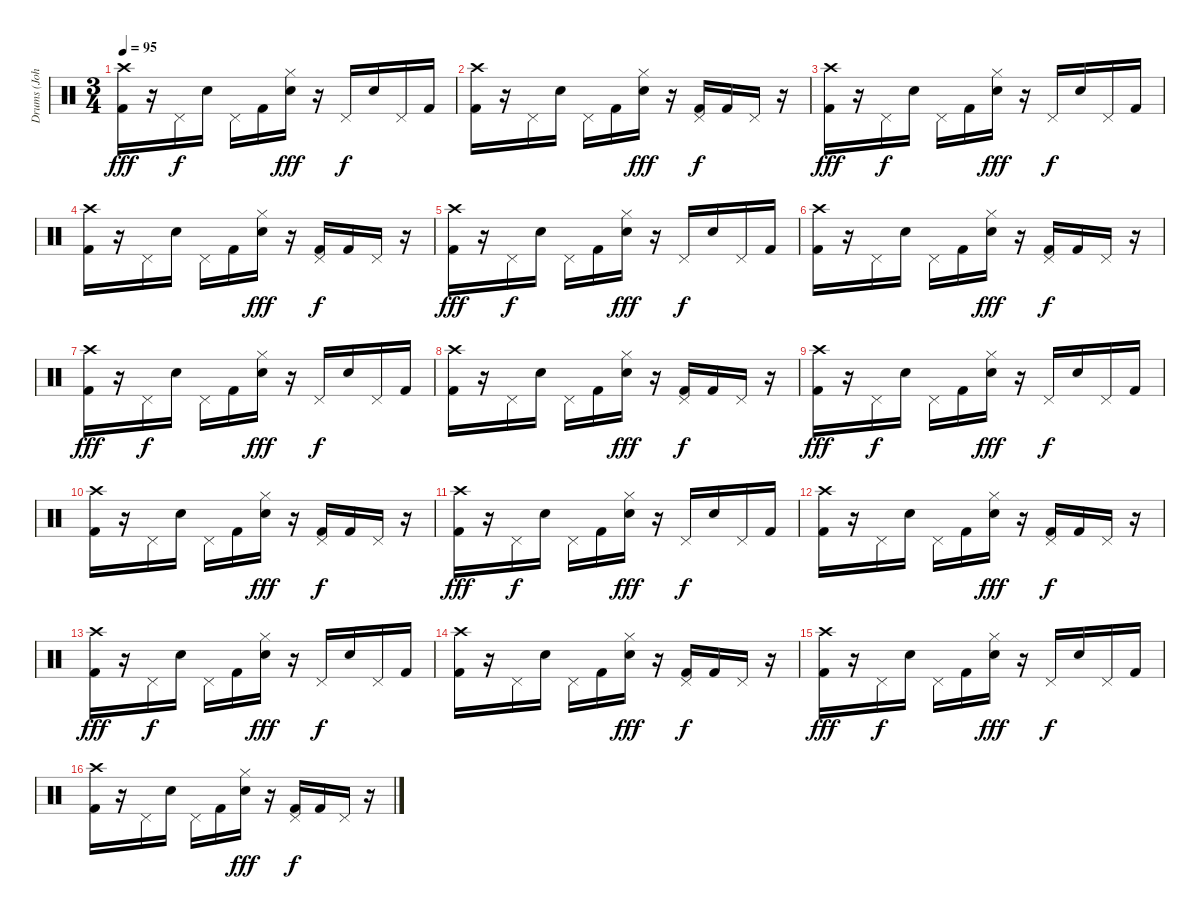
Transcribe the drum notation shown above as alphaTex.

\track ("Drums (John Otto)" "Drums (Joh") {instrument percussion}
\staff {score}
\articulation defaults
\ts (3 4)
\tempo 95
\clef neutral
\ks c
("Crash high (hit)" "Kick (hit) 2").16{dy fff} r.16 "Pedal Hi-Hat (hit)".16{dy f} "Electric Snare (hit)".16 "Pedal Hi-Hat (hit)".16 "Kick (hit) 2".16 ("Hi-Hat (closed)" "Electric Snare (hit)").16{dy fff} r.16 "Pedal Hi-Hat (hit)".16{dy f} "Electric Snare (hit)".16 "Pedal Hi-Hat (hit)".16 "Kick (hit) 2".16 |
("Crash high (hit)" "Kick (hit) 2").16 r.16 "Pedal Hi-Hat (hit)".16 "Electric Snare (hit)".16 "Pedal Hi-Hat (hit)".16 "Kick (hit) 2".16 ("Hi-Hat (closed)" "Electric Snare (hit)").16{dy fff} r.16 ("Pedal Hi-Hat (hit)" "Kick (hit) 2").16{dy f} "Kick (hit) 2".16 "Pedal Hi-Hat (hit)".16 r.16 |
("Crash high (hit)" "Kick (hit) 2").16{dy fff} r.16 "Pedal Hi-Hat (hit)".16{dy f} "Electric Snare (hit)".16 "Pedal Hi-Hat (hit)".16 "Kick (hit) 2".16 ("Hi-Hat (closed)" "Electric Snare (hit)").16{dy fff} r.16 "Pedal Hi-Hat (hit)".16{dy f} "Electric Snare (hit)".16 "Pedal Hi-Hat (hit)".16 "Kick (hit) 2".16 |
("Crash high (hit)" "Kick (hit) 2").16 r.16 "Pedal Hi-Hat (hit)".16 "Electric Snare (hit)".16 "Pedal Hi-Hat (hit)".16 "Kick (hit) 2".16 ("Hi-Hat (closed)" "Electric Snare (hit)").16{dy fff} r.16 ("Pedal Hi-Hat (hit)" "Kick (hit) 2").16{dy f} "Kick (hit) 2".16 "Pedal Hi-Hat (hit)".16 r.16 |
("Crash high (hit)" "Kick (hit) 2").16{dy fff} r.16 "Pedal Hi-Hat (hit)".16{dy f} "Electric Snare (hit)".16 "Pedal Hi-Hat (hit)".16 "Kick (hit) 2".16 ("Hi-Hat (closed)" "Electric Snare (hit)").16{dy fff} r.16 "Pedal Hi-Hat (hit)".16{dy f} "Electric Snare (hit)".16 "Pedal Hi-Hat (hit)".16 "Kick (hit) 2".16 |
("Crash high (hit)" "Kick (hit) 2").16 r.16 "Pedal Hi-Hat (hit)".16 "Electric Snare (hit)".16 "Pedal Hi-Hat (hit)".16 "Kick (hit) 2".16 ("Hi-Hat (closed)" "Electric Snare (hit)").16{dy fff} r.16 ("Pedal Hi-Hat (hit)" "Kick (hit) 2").16{dy f} "Kick (hit) 2".16 "Pedal Hi-Hat (hit)".16 r.16 |
("Crash high (hit)" "Kick (hit) 2").16{dy fff} r.16 "Pedal Hi-Hat (hit)".16{dy f} "Electric Snare (hit)".16 "Pedal Hi-Hat (hit)".16 "Kick (hit) 2".16 ("Hi-Hat (closed)" "Electric Snare (hit)").16{dy fff} r.16 "Pedal Hi-Hat (hit)".16{dy f} "Electric Snare (hit)".16 "Pedal Hi-Hat (hit)".16 "Kick (hit) 2".16 |
("Crash high (hit)" "Kick (hit) 2").16 r.16 "Pedal Hi-Hat (hit)".16 "Electric Snare (hit)".16 "Pedal Hi-Hat (hit)".16 "Kick (hit) 2".16 ("Hi-Hat (closed)" "Electric Snare (hit)").16{dy fff} r.16 ("Pedal Hi-Hat (hit)" "Kick (hit) 2").16{dy f} "Kick (hit) 2".16 "Pedal Hi-Hat (hit)".16 r.16 |
("Crash high (hit)" "Kick (hit) 2").16{dy fff} r.16 "Pedal Hi-Hat (hit)".16{dy f} "Electric Snare (hit)".16 "Pedal Hi-Hat (hit)".16 "Kick (hit) 2".16 ("Hi-Hat (closed)" "Electric Snare (hit)").16{dy fff} r.16 "Pedal Hi-Hat (hit)".16{dy f} "Electric Snare (hit)".16 "Pedal Hi-Hat (hit)".16 "Kick (hit) 2".16 |
("Crash high (hit)" "Kick (hit) 2").16 r.16 "Pedal Hi-Hat (hit)".16 "Electric Snare (hit)".16 "Pedal Hi-Hat (hit)".16 "Kick (hit) 2".16 ("Hi-Hat (closed)" "Electric Snare (hit)").16{dy fff} r.16 ("Pedal Hi-Hat (hit)" "Kick (hit) 2").16{dy f} "Kick (hit) 2".16 "Pedal Hi-Hat (hit)".16 r.16 |
("Crash high (hit)" "Kick (hit) 2").16{dy fff} r.16 "Pedal Hi-Hat (hit)".16{dy f} "Electric Snare (hit)".16 "Pedal Hi-Hat (hit)".16 "Kick (hit) 2".16 ("Hi-Hat (closed)" "Electric Snare (hit)").16{dy fff} r.16 "Pedal Hi-Hat (hit)".16{dy f} "Electric Snare (hit)".16 "Pedal Hi-Hat (hit)".16 "Kick (hit) 2".16 |
("Crash high (hit)" "Kick (hit) 2").16 r.16 "Pedal Hi-Hat (hit)".16 "Electric Snare (hit)".16 "Pedal Hi-Hat (hit)".16 "Kick (hit) 2".16 ("Hi-Hat (closed)" "Electric Snare (hit)").16{dy fff} r.16 ("Pedal Hi-Hat (hit)" "Kick (hit) 2").16{dy f} "Kick (hit) 2".16 "Pedal Hi-Hat (hit)".16 r.16 |
("Crash high (hit)" "Kick (hit) 2").16{dy fff} r.16 "Pedal Hi-Hat (hit)".16{dy f} "Electric Snare (hit)".16 "Pedal Hi-Hat (hit)".16 "Kick (hit) 2".16 ("Hi-Hat (closed)" "Electric Snare (hit)").16{dy fff} r.16 "Pedal Hi-Hat (hit)".16{dy f} "Electric Snare (hit)".16 "Pedal Hi-Hat (hit)".16 "Kick (hit) 2".16 |
("Crash high (hit)" "Kick (hit) 2").16 r.16 "Pedal Hi-Hat (hit)".16 "Electric Snare (hit)".16 "Pedal Hi-Hat (hit)".16 "Kick (hit) 2".16 ("Hi-Hat (closed)" "Electric Snare (hit)").16{dy fff} r.16 ("Pedal Hi-Hat (hit)" "Kick (hit) 2").16{dy f} "Kick (hit) 2".16 "Pedal Hi-Hat (hit)".16 r.16 |
("Crash high (hit)" "Kick (hit) 2").16{dy fff} r.16 "Pedal Hi-Hat (hit)".16{dy f} "Electric Snare (hit)".16 "Pedal Hi-Hat (hit)".16 "Kick (hit) 2".16 ("Hi-Hat (closed)" "Electric Snare (hit)").16{dy fff} r.16 "Pedal Hi-Hat (hit)".16{dy f} "Electric Snare (hit)".16 "Pedal Hi-Hat (hit)".16 "Kick (hit) 2".16 |
("Crash high (hit)" "Kick (hit) 2").16 r.16 "Pedal Hi-Hat (hit)".16 "Electric Snare (hit)".16 "Pedal Hi-Hat (hit)".16 "Kick (hit) 2".16 ("Hi-Hat (closed)" "Electric Snare (hit)").16{dy fff} r.16 ("Pedal Hi-Hat (hit)" "Kick (hit) 2").16{dy f} "Kick (hit) 2".16 "Pedal Hi-Hat (hit)".16 r.16
